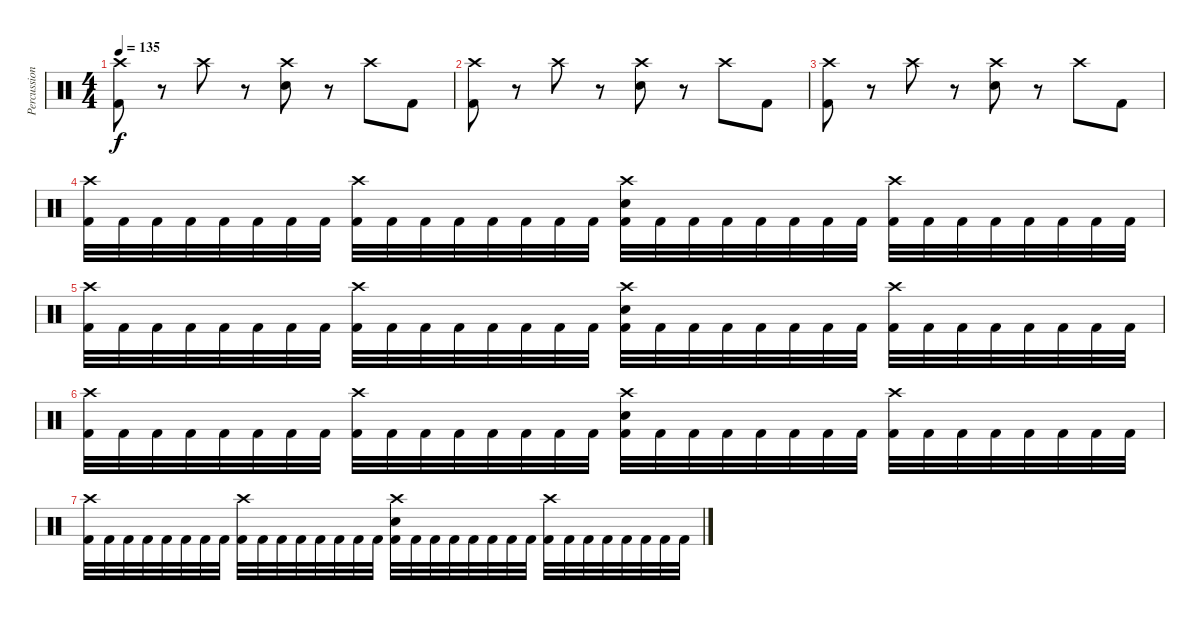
\track ("Percussion" "Percussion") {instrument percussion}
\staff {score}
\articulation defaults
\ts (4 4)
\tempo 135
\clef neutral
\ks c
("Crash high (hit)" "Kick (hit) 2").8{dy f} r.8 "Crash high (hit)".8 r.8 ("Crash high (hit)" "Electric Snare (hit)").8 r.8 "Crash high (hit)".8 "Kick (hit) 2".8 |
("Crash high (hit)" "Kick (hit) 2").8 r.8 "Crash high (hit)".8 r.8 ("Crash high (hit)" "Electric Snare (hit)").8 r.8 "Crash high (hit)".8 "Kick (hit) 2".8 |
("Crash high (hit)" "Kick (hit) 2").8 r.8 "Crash high (hit)".8 r.8 ("Crash high (hit)" "Electric Snare (hit)").8 r.8 "Crash high (hit)".8 "Kick (hit) 2".8 |
("Crash high (hit)" "Kick (hit) 2").32 "Kick (hit) 2".32 "Kick (hit) 2".32 "Kick (hit) 2".32 "Kick (hit) 2".32 "Kick (hit) 2".32 "Kick (hit) 2".32 "Kick (hit) 2".32 ("Crash high (hit)" "Kick (hit) 2").32 "Kick (hit) 2".32 "Kick (hit) 2".32 "Kick (hit) 2".32 "Kick (hit) 2".32 "Kick (hit) 2".32 "Kick (hit) 2".32 "Kick (hit) 2".32 ("Crash high (hit)" "Electric Snare (hit)" "Kick (hit) 2").32 "Kick (hit) 2".32 "Kick (hit) 2".32 "Kick (hit) 2".32 "Kick (hit) 2".32 "Kick (hit) 2".32 "Kick (hit) 2".32 "Kick (hit) 2".32 ("Crash high (hit)" "Kick (hit) 2").32 "Kick (hit) 2".32 "Kick (hit) 2".32 "Kick (hit) 2".32 "Kick (hit) 2".32 "Kick (hit) 2".32 "Kick (hit) 2".32 "Kick (hit) 2".32 |
("Crash high (hit)" "Kick (hit) 2").32 "Kick (hit) 2".32 "Kick (hit) 2".32 "Kick (hit) 2".32 "Kick (hit) 2".32 "Kick (hit) 2".32 "Kick (hit) 2".32 "Kick (hit) 2".32 ("Crash high (hit)" "Kick (hit) 2").32 "Kick (hit) 2".32 "Kick (hit) 2".32 "Kick (hit) 2".32 "Kick (hit) 2".32 "Kick (hit) 2".32 "Kick (hit) 2".32 "Kick (hit) 2".32 ("Crash high (hit)" "Electric Snare (hit)" "Kick (hit) 2").32 "Kick (hit) 2".32 "Kick (hit) 2".32 "Kick (hit) 2".32 "Kick (hit) 2".32 "Kick (hit) 2".32 "Kick (hit) 2".32 "Kick (hit) 2".32 ("Crash high (hit)" "Kick (hit) 2").32 "Kick (hit) 2".32 "Kick (hit) 2".32 "Kick (hit) 2".32 "Kick (hit) 2".32 "Kick (hit) 2".32 "Kick (hit) 2".32 "Kick (hit) 2".32 |
("Crash high (hit)" "Kick (hit) 2").32{volume 0} "Kick (hit) 2".32 "Kick (hit) 2".32 "Kick (hit) 2".32 "Kick (hit) 2".32 "Kick (hit) 2".32 "Kick (hit) 2".32 "Kick (hit) 2".32 ("Crash high (hit)" "Kick (hit) 2").32 "Kick (hit) 2".32 "Kick (hit) 2".32 "Kick (hit) 2".32 "Kick (hit) 2".32 "Kick (hit) 2".32 "Kick (hit) 2".32 "Kick (hit) 2".32 ("Crash high (hit)" "Electric Snare (hit)" "Kick (hit) 2").32 "Kick (hit) 2".32 "Kick (hit) 2".32 "Kick (hit) 2".32 "Kick (hit) 2".32 "Kick (hit) 2".32 "Kick (hit) 2".32 "Kick (hit) 2".32 ("Crash high (hit)" "Kick (hit) 2").32 "Kick (hit) 2".32 "Kick (hit) 2".32 "Kick (hit) 2".32 "Kick (hit) 2".32 "Kick (hit) 2".32 "Kick (hit) 2".32 "Kick (hit) 2".32 |
("Crash high (hit)" "Kick (hit) 2").32 "Kick (hit) 2".32 "Kick (hit) 2".32 "Kick (hit) 2".32 "Kick (hit) 2".32 "Kick (hit) 2".32 "Kick (hit) 2".32 "Kick (hit) 2".32 ("Crash high (hit)" "Kick (hit) 2").32 "Kick (hit) 2".32 "Kick (hit) 2".32 "Kick (hit) 2".32 "Kick (hit) 2".32 "Kick (hit) 2".32 "Kick (hit) 2".32 "Kick (hit) 2".32 ("Crash high (hit)" "Electric Snare (hit)" "Kick (hit) 2").32 "Kick (hit) 2".32 "Kick (hit) 2".32 "Kick (hit) 2".32 "Kick (hit) 2".32 "Kick (hit) 2".32 "Kick (hit) 2".32 "Kick (hit) 2".32 ("Crash high (hit)" "Kick (hit) 2").32 "Kick (hit) 2".32 "Kick (hit) 2".32 "Kick (hit) 2".32 "Kick (hit) 2".32 "Kick (hit) 2".32 "Kick (hit) 2".32 "Kick (hit) 2".32
